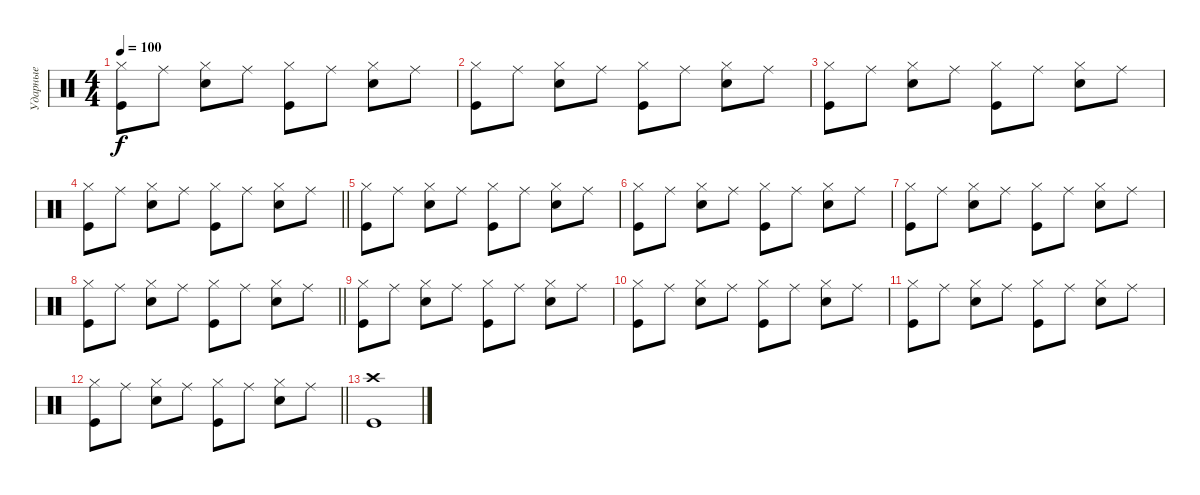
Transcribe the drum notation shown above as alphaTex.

\track ("Ударные" "Ударные") {instrument percussion}
\staff {score}
\articulation defaults
\ts (4 4)
\tempo 100
\clef neutral
\ks c
("Hi-Hat (closed)" "Kick (hit)").8{dy f} "Ride (middle)".8 ("Hi-Hat (closed)" "Snare (hit) 2").8 "Ride (middle)".8 ("Hi-Hat (closed)" "Kick (hit)").8 "Ride (middle)".8 ("Hi-Hat (closed)" "Snare (hit) 2").8 "Ride (middle)".8 |
("Hi-Hat (closed)" "Kick (hit)").8 "Ride (middle)".8 ("Hi-Hat (closed)" "Snare (hit) 2").8 "Ride (middle)".8 ("Hi-Hat (closed)" "Kick (hit)").8 "Ride (middle)".8 ("Hi-Hat (closed)" "Snare (hit) 2").8 "Ride (middle)".8 |
("Hi-Hat (closed)" "Kick (hit)").8 "Ride (middle)".8 ("Hi-Hat (closed)" "Snare (hit) 2").8 "Ride (middle)".8 ("Hi-Hat (closed)" "Kick (hit)").8 "Ride (middle)".8 ("Hi-Hat (closed)" "Snare (hit) 2").8 "Ride (middle)".8 |
\barLineRight lightlight
("Hi-Hat (closed)" "Kick (hit)").8 "Ride (middle)".8 ("Hi-Hat (closed)" "Snare (hit) 2").8 "Ride (middle)".8 ("Hi-Hat (closed)" "Kick (hit)").8 "Ride (middle)".8 ("Hi-Hat (closed)" "Snare (hit) 2").8 "Ride (middle)".8 |
("Hi-Hat (closed)" "Kick (hit)").8 "Ride (middle)".8 ("Hi-Hat (closed)" "Snare (hit) 2").8 "Ride (middle)".8 ("Hi-Hat (closed)" "Kick (hit)").8 "Ride (middle)".8 ("Hi-Hat (closed)" "Snare (hit) 2").8 "Ride (middle)".8 |
("Hi-Hat (closed)" "Kick (hit)").8 "Ride (middle)".8 ("Hi-Hat (closed)" "Snare (hit) 2").8 "Ride (middle)".8 ("Hi-Hat (closed)" "Kick (hit)").8 "Ride (middle)".8 ("Hi-Hat (closed)" "Snare (hit) 2").8 "Ride (middle)".8 |
("Hi-Hat (closed)" "Kick (hit)").8 "Ride (middle)".8 ("Hi-Hat (closed)" "Snare (hit) 2").8 "Ride (middle)".8 ("Hi-Hat (closed)" "Kick (hit)").8 "Ride (middle)".8 ("Hi-Hat (closed)" "Snare (hit) 2").8 "Ride (middle)".8 |
\barLineRight lightlight
("Hi-Hat (closed)" "Kick (hit)").8 "Ride (middle)".8 ("Hi-Hat (closed)" "Snare (hit) 2").8 "Ride (middle)".8 ("Hi-Hat (closed)" "Kick (hit)").8 "Ride (middle)".8 ("Hi-Hat (closed)" "Snare (hit) 2").8 "Ride (middle)".8 |
("Hi-Hat (closed)" "Kick (hit)").8 "Ride (middle)".8 ("Hi-Hat (closed)" "Snare (hit) 2").8 "Ride (middle)".8 ("Hi-Hat (closed)" "Kick (hit)").8 "Ride (middle)".8 ("Hi-Hat (closed)" "Snare (hit) 2").8 "Ride (middle)".8 |
("Hi-Hat (closed)" "Kick (hit)").8 "Ride (middle)".8 ("Hi-Hat (closed)" "Snare (hit) 2").8 "Ride (middle)".8 ("Hi-Hat (closed)" "Kick (hit)").8 "Ride (middle)".8 ("Hi-Hat (closed)" "Snare (hit) 2").8 "Ride (middle)".8 |
("Hi-Hat (closed)" "Kick (hit)").8 "Ride (middle)".8 ("Hi-Hat (closed)" "Snare (hit) 2").8 "Ride (middle)".8 ("Hi-Hat (closed)" "Kick (hit)").8 "Ride (middle)".8 ("Hi-Hat (closed)" "Snare (hit) 2").8 "Ride (middle)".8 |
\barLineRight lightlight
("Hi-Hat (closed)" "Kick (hit)").8 "Ride (middle)".8 ("Hi-Hat (closed)" "Snare (hit) 2").8 "Ride (middle)".8 ("Hi-Hat (closed)" "Kick (hit)").8 "Ride (middle)".8 ("Hi-Hat (closed)" "Snare (hit) 2").8 "Ride (middle)".8 |
("Kick (hit)" "Crash high (hit)").1
